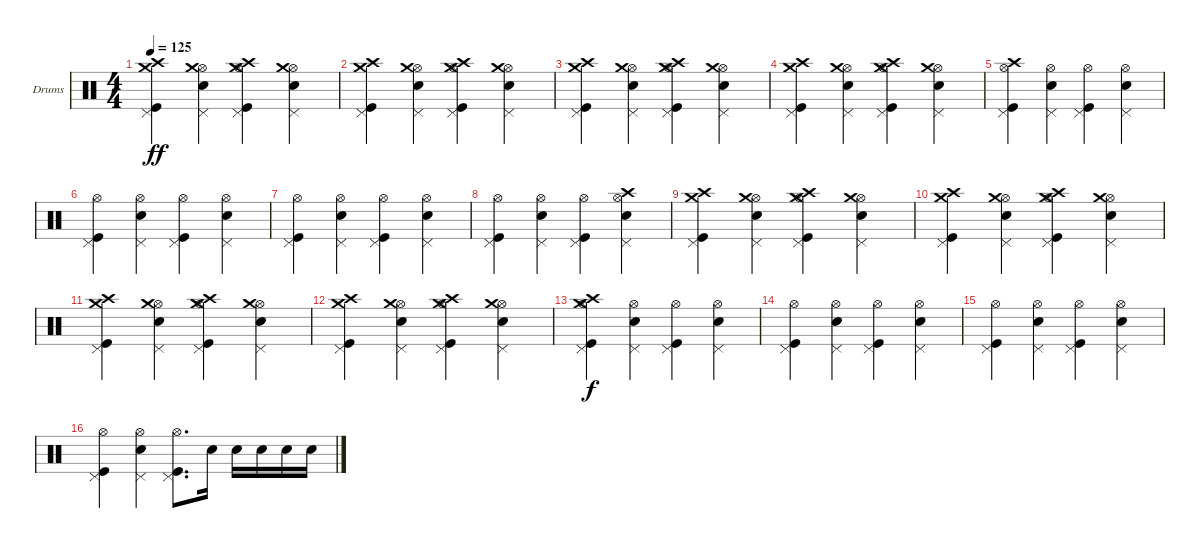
\defaultSystemsLayout 4
\bracketExtendMode groupsimilarinstruments
\firstSystemTrackNameOrientation horizontal
\otherSystemsTrackNameOrientation horizontal
\track ("Drums" "Drums") {instrument percussion}
\staff {score}
\articulation defaults
\ts (4 4)
\tempo 125
\clef neutral
\ks c
("Kick (hit)" "Pedal Hi-Hat (hit)" "Crash medium (hit)" "Crash high (hit)").4{dy ff} ("Snare (hit) 2" "Pedal Hi-Hat (hit)" "Hi-Hat (open)" "Crash medium (hit)").4 ("Kick (hit)" "Pedal Hi-Hat (hit)" "Hi-Hat (open)" "Crash high (hit)" "Crash medium (hit)").4 ("Snare (hit) 2" "Pedal Hi-Hat (hit)" "Hi-Hat (open)" "Crash medium (hit)").4 |
("Kick (hit)" "Pedal Hi-Hat (hit)" "Crash medium (hit)" "Crash high (hit)").4 ("Snare (hit) 2" "Pedal Hi-Hat (hit)" "Hi-Hat (open)" "Crash medium (hit)").4 ("Kick (hit)" "Pedal Hi-Hat (hit)" "Hi-Hat (open)" "Crash high (hit)" "Crash medium (hit)").4 ("Snare (hit) 2" "Pedal Hi-Hat (hit)" "Hi-Hat (open)" "Crash medium (hit)").4 |
("Kick (hit)" "Pedal Hi-Hat (hit)" "Crash medium (hit)" "Crash high (hit)").4 ("Snare (hit) 2" "Pedal Hi-Hat (hit)" "Hi-Hat (open)" "Crash medium (hit)").4 ("Kick (hit)" "Pedal Hi-Hat (hit)" "Hi-Hat (open)" "Crash high (hit)" "Crash medium (hit)").4 ("Snare (hit) 2" "Pedal Hi-Hat (hit)" "Hi-Hat (open)" "Crash medium (hit)").4 |
("Kick (hit)" "Pedal Hi-Hat (hit)" "Crash medium (hit)" "Crash high (hit)").4 ("Snare (hit) 2" "Pedal Hi-Hat (hit)" "Hi-Hat (open)" "Crash medium (hit)").4 ("Kick (hit)" "Pedal Hi-Hat (hit)" "Hi-Hat (open)" "Crash high (hit)" "Crash medium (hit)").4 ("Snare (hit) 2" "Pedal Hi-Hat (hit)" "Hi-Hat (open)" "Crash medium (hit)").4 |
("Kick (hit)" "Pedal Hi-Hat (hit)" "Hi-Hat (open)" "Crash high (hit)").4 ("Snare (hit) 2" "Pedal Hi-Hat (hit)" "Hi-Hat (open)").4 ("Kick (hit)" "Pedal Hi-Hat (hit)" "Hi-Hat (open)").4 ("Snare (hit) 2" "Pedal Hi-Hat (hit)" "Hi-Hat (open)").4 |
("Kick (hit)" "Pedal Hi-Hat (hit)" "Hi-Hat (open)").4 ("Snare (hit) 2" "Pedal Hi-Hat (hit)" "Hi-Hat (open)").4 ("Kick (hit)" "Pedal Hi-Hat (hit)" "Hi-Hat (open)").4 ("Snare (hit) 2" "Pedal Hi-Hat (hit)" "Hi-Hat (open)").4 |
("Kick (hit)" "Pedal Hi-Hat (hit)" "Hi-Hat (open)").4 ("Snare (hit) 2" "Pedal Hi-Hat (hit)" "Hi-Hat (open)").4 ("Kick (hit)" "Pedal Hi-Hat (hit)" "Hi-Hat (open)").4 ("Snare (hit) 2" "Pedal Hi-Hat (hit)" "Hi-Hat (open)").4 |
("Kick (hit)" "Pedal Hi-Hat (hit)" "Hi-Hat (open)").4 ("Snare (hit) 2" "Pedal Hi-Hat (hit)" "Hi-Hat (open)").4 ("Kick (hit)" "Pedal Hi-Hat (hit)" "Hi-Hat (open)").4 ("Snare (hit) 2" "Pedal Hi-Hat (hit)" "Hi-Hat (open)" "Crash high (hit)").4 |
("Kick (hit)" "Pedal Hi-Hat (hit)" "Crash medium (hit)" "Crash high (hit)").4 ("Snare (hit) 2" "Pedal Hi-Hat (hit)" "Hi-Hat (open)" "Crash medium (hit)").4 ("Kick (hit)" "Pedal Hi-Hat (hit)" "Hi-Hat (open)" "Crash high (hit)" "Crash medium (hit)").4 ("Snare (hit) 2" "Pedal Hi-Hat (hit)" "Hi-Hat (open)" "Crash medium (hit)").4 |
("Kick (hit)" "Pedal Hi-Hat (hit)" "Crash medium (hit)" "Crash high (hit)").4 ("Snare (hit) 2" "Pedal Hi-Hat (hit)" "Hi-Hat (open)" "Crash medium (hit)").4 ("Kick (hit)" "Pedal Hi-Hat (hit)" "Hi-Hat (open)" "Crash high (hit)" "Crash medium (hit)").4 ("Snare (hit) 2" "Pedal Hi-Hat (hit)" "Hi-Hat (open)" "Crash medium (hit)").4 |
("Kick (hit)" "Pedal Hi-Hat (hit)" "Crash medium (hit)" "Crash high (hit)").4 ("Snare (hit) 2" "Pedal Hi-Hat (hit)" "Hi-Hat (open)" "Crash medium (hit)").4 ("Kick (hit)" "Pedal Hi-Hat (hit)" "Hi-Hat (open)" "Crash high (hit)" "Crash medium (hit)").4 ("Snare (hit) 2" "Pedal Hi-Hat (hit)" "Hi-Hat (open)" "Crash medium (hit)").4 |
("Kick (hit)" "Pedal Hi-Hat (hit)" "Crash medium (hit)" "Crash high (hit)").4 ("Snare (hit) 2" "Pedal Hi-Hat (hit)" "Hi-Hat (open)" "Crash medium (hit)").4 ("Kick (hit)" "Pedal Hi-Hat (hit)" "Hi-Hat (open)" "Crash high (hit)" "Crash medium (hit)").4 ("Snare (hit) 2" "Pedal Hi-Hat (hit)" "Hi-Hat (open)" "Crash medium (hit)").4 |
("Kick (hit)" "Pedal Hi-Hat (hit)" "Hi-Hat (open)" "Crash high (hit)" "Crash medium (hit)").4{dy f} ("Snare (hit) 2" "Pedal Hi-Hat (hit)" "Hi-Hat (open)").4 ("Kick (hit)" "Pedal Hi-Hat (hit)" "Hi-Hat (open)").4 ("Snare (hit) 2" "Pedal Hi-Hat (hit)" "Hi-Hat (open)").4 |
("Kick (hit)" "Pedal Hi-Hat (hit)" "Hi-Hat (open)").4 ("Snare (hit) 2" "Pedal Hi-Hat (hit)" "Hi-Hat (open)").4 ("Kick (hit)" "Pedal Hi-Hat (hit)" "Hi-Hat (open)").4 ("Snare (hit) 2" "Pedal Hi-Hat (hit)" "Hi-Hat (open)").4 |
("Kick (hit)" "Pedal Hi-Hat (hit)" "Hi-Hat (open)").4 ("Snare (hit) 2" "Pedal Hi-Hat (hit)" "Hi-Hat (open)").4 ("Kick (hit)" "Pedal Hi-Hat (hit)" "Hi-Hat (open)").4 ("Snare (hit) 2" "Pedal Hi-Hat (hit)" "Hi-Hat (open)").4 |
("Kick (hit)" "Pedal Hi-Hat (hit)" "Hi-Hat (open)").4 ("Snare (hit) 2" "Pedal Hi-Hat (hit)" "Hi-Hat (open)").4 ("Kick (hit)" "Pedal Hi-Hat (hit)" "Hi-Hat (open)").8{d} "Snare (hit) 2".16 "Snare (hit) 2".16 "Snare (hit) 2".16 "Snare (hit) 2".16 "Snare (hit) 2".16
